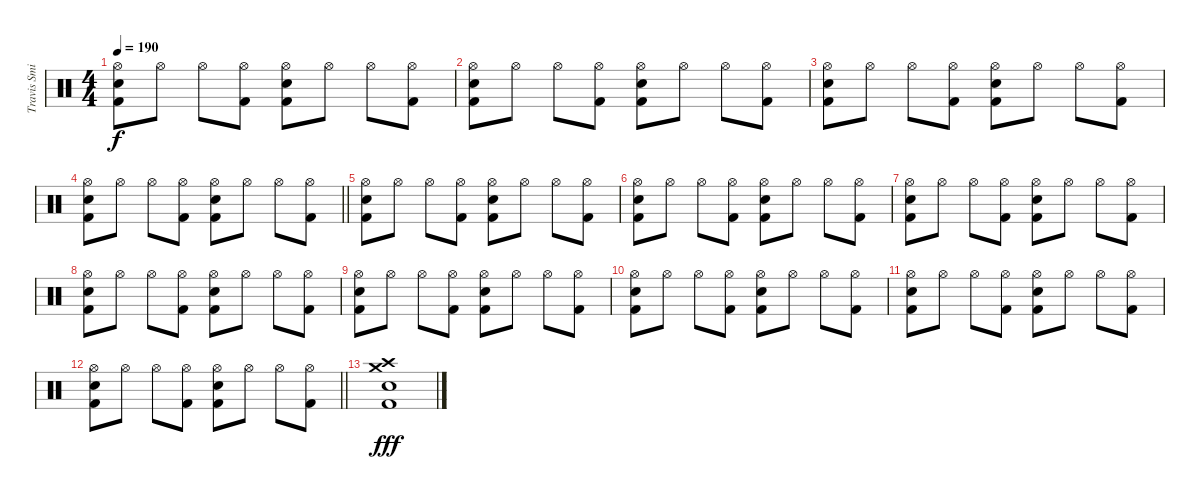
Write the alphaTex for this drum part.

\track ("Travis Smith" "Travis Smi") {instrument percussion}
\staff {score}
\articulation defaults
\ts (4 4)
\tempo 190
\clef neutral
\ks c
("Hi-Hat (open)" "Electric Snare (hit)" "Kick (hit) 2").8{dy f} "Hi-Hat (open)".8 "Hi-Hat (open)".8 ("Hi-Hat (open)" "Kick (hit) 2").8 ("Hi-Hat (open)" "Electric Snare (hit)" "Kick (hit) 2").8 "Hi-Hat (open)".8 "Hi-Hat (open)".8 ("Hi-Hat (open)" "Kick (hit) 2").8 |
("Hi-Hat (open)" "Electric Snare (hit)" "Kick (hit) 2").8 "Hi-Hat (open)".8 "Hi-Hat (open)".8 ("Hi-Hat (open)" "Kick (hit) 2").8 ("Hi-Hat (open)" "Electric Snare (hit)" "Kick (hit) 2").8 "Hi-Hat (open)".8 "Hi-Hat (open)".8 ("Hi-Hat (open)" "Kick (hit) 2").8 |
("Hi-Hat (open)" "Electric Snare (hit)" "Kick (hit) 2").8 "Hi-Hat (open)".8 "Hi-Hat (open)".8 ("Hi-Hat (open)" "Kick (hit) 2").8 ("Hi-Hat (open)" "Electric Snare (hit)" "Kick (hit) 2").8 "Hi-Hat (open)".8 "Hi-Hat (open)".8 ("Hi-Hat (open)" "Kick (hit) 2").8 |
\barLineRight lightlight
("Hi-Hat (open)" "Electric Snare (hit)" "Kick (hit) 2").8 "Hi-Hat (open)".8 "Hi-Hat (open)".8 ("Hi-Hat (open)" "Kick (hit) 2").8 ("Hi-Hat (open)" "Electric Snare (hit)" "Kick (hit) 2").8 "Hi-Hat (open)".8 "Hi-Hat (open)".8 ("Hi-Hat (open)" "Kick (hit) 2").8 |
("Hi-Hat (open)" "Electric Snare (hit)" "Kick (hit) 2").8 "Hi-Hat (open)".8 "Hi-Hat (open)".8 ("Hi-Hat (open)" "Kick (hit) 2").8 ("Hi-Hat (open)" "Electric Snare (hit)" "Kick (hit) 2").8 "Hi-Hat (open)".8 "Hi-Hat (open)".8 ("Hi-Hat (open)" "Kick (hit) 2").8 |
("Hi-Hat (open)" "Electric Snare (hit)" "Kick (hit) 2").8 "Hi-Hat (open)".8 "Hi-Hat (open)".8 ("Hi-Hat (open)" "Kick (hit) 2").8 ("Hi-Hat (open)" "Electric Snare (hit)" "Kick (hit) 2").8 "Hi-Hat (open)".8 "Hi-Hat (open)".8 ("Hi-Hat (open)" "Kick (hit) 2").8 |
("Hi-Hat (open)" "Electric Snare (hit)" "Kick (hit) 2").8 "Hi-Hat (open)".8 "Hi-Hat (open)".8 ("Hi-Hat (open)" "Kick (hit) 2").8 ("Hi-Hat (open)" "Electric Snare (hit)" "Kick (hit) 2").8 "Hi-Hat (open)".8 "Hi-Hat (open)".8 ("Hi-Hat (open)" "Kick (hit) 2").8 |
("Hi-Hat (open)" "Electric Snare (hit)" "Kick (hit) 2").8 "Hi-Hat (open)".8 "Hi-Hat (open)".8 ("Hi-Hat (open)" "Kick (hit) 2").8 ("Hi-Hat (open)" "Electric Snare (hit)" "Kick (hit) 2").8 "Hi-Hat (open)".8 "Hi-Hat (open)".8 ("Hi-Hat (open)" "Kick (hit) 2").8 |
("Hi-Hat (open)" "Electric Snare (hit)" "Kick (hit) 2").8 "Hi-Hat (open)".8 "Hi-Hat (open)".8 ("Hi-Hat (open)" "Kick (hit) 2").8 ("Hi-Hat (open)" "Electric Snare (hit)" "Kick (hit) 2").8 "Hi-Hat (open)".8 "Hi-Hat (open)".8 ("Hi-Hat (open)" "Kick (hit) 2").8 |
("Hi-Hat (open)" "Electric Snare (hit)" "Kick (hit) 2").8 "Hi-Hat (open)".8 "Hi-Hat (open)".8 ("Hi-Hat (open)" "Kick (hit) 2").8 ("Hi-Hat (open)" "Electric Snare (hit)" "Kick (hit) 2").8 "Hi-Hat (open)".8 "Hi-Hat (open)".8 ("Hi-Hat (open)" "Kick (hit) 2").8 |
("Hi-Hat (open)" "Electric Snare (hit)" "Kick (hit) 2").8 "Hi-Hat (open)".8 "Hi-Hat (open)".8 ("Hi-Hat (open)" "Kick (hit) 2").8 ("Hi-Hat (open)" "Electric Snare (hit)" "Kick (hit) 2").8 "Hi-Hat (open)".8 "Hi-Hat (open)".8 ("Hi-Hat (open)" "Kick (hit) 2").8 |
\barLineRight lightlight
("Hi-Hat (open)" "Electric Snare (hit)" "Kick (hit) 2").8 "Hi-Hat (open)".8 "Hi-Hat (open)".8 ("Hi-Hat (open)" "Kick (hit) 2").8 ("Hi-Hat (open)" "Electric Snare (hit)" "Kick (hit) 2").8 "Hi-Hat (open)".8 "Hi-Hat (open)".8 ("Hi-Hat (open)" "Kick (hit) 2").8 |
("Crash medium (hit)" "Crash high (hit)" "Electric Snare (hit)" "Kick (hit) 2").1{dy fff}
